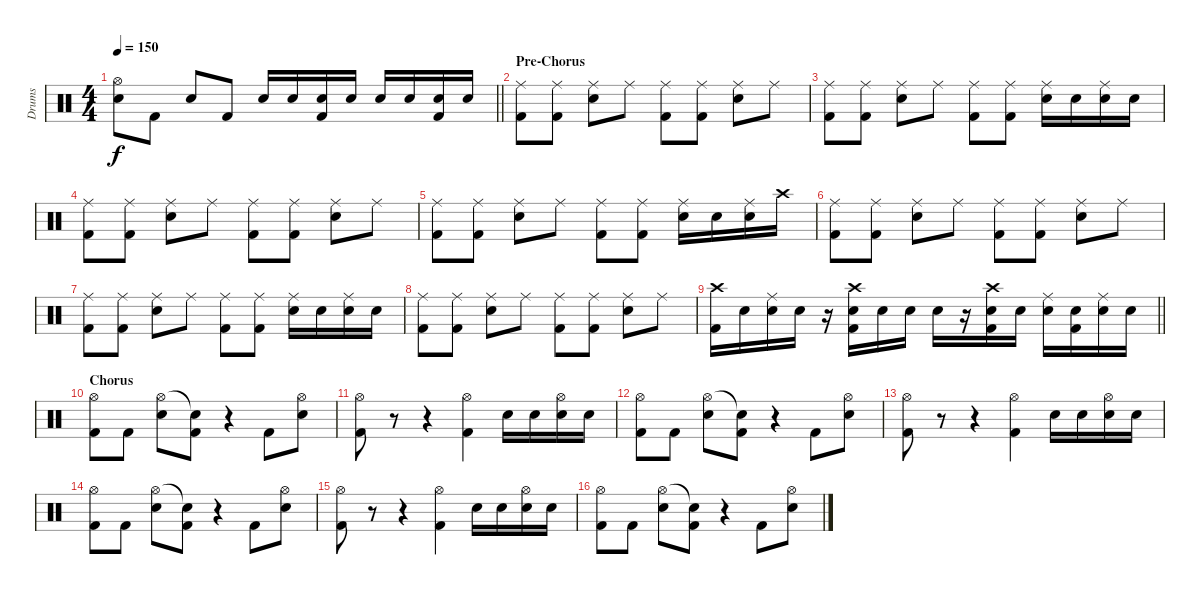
\track ("Drums" "Drums") {instrument percussion}
\staff {score}
\articulation defaults
\ts (4 4)
\tempo 150
\clef neutral
\barLineRight lightlight
\ks c
("Hi-Hat (open)" "Snare (hit) 2").8{dy f} "Kick (hit) 2".8 "Snare (hit) 2".8 "Kick (hit) 2".8 "Snare (hit) 2".16 "Snare (hit) 2".16 ("Snare (hit) 2" "Kick (hit) 2").16 "Snare (hit) 2".16 "Snare (hit) 2".16 "Snare (hit) 2".16 ("Snare (hit) 2" "Kick (hit) 2").16 "Snare (hit) 2".16 |
\section ("" "Pre-Chorus")
("Ride (middle)" "Kick (hit) 2").8 ("Ride (middle)" "Kick (hit) 2").8 ("Ride (middle)" "Snare (hit) 2").8 "Ride (middle)".8 ("Ride (middle)" "Kick (hit) 2").8 ("Ride (middle)" "Kick (hit) 2").8 ("Ride (middle)" "Snare (hit) 2").8 "Ride (middle)".8 |
("Ride (middle)" "Kick (hit) 2").8 ("Ride (middle)" "Kick (hit) 2").8 ("Ride (middle)" "Snare (hit) 2").8 "Ride (middle)".8 ("Ride (middle)" "Kick (hit) 2").8 ("Ride (middle)" "Kick (hit) 2").8 ("Ride (middle)" "Snare (hit) 2").16 "Snare (hit) 2".16 ("Ride (middle)" "Snare (hit) 2").16 "Snare (hit) 2".16 |
("Ride (middle)" "Kick (hit) 2").8 ("Ride (middle)" "Kick (hit) 2").8 ("Ride (middle)" "Snare (hit) 2").8 "Ride (middle)".8 ("Ride (middle)" "Kick (hit) 2").8 ("Ride (middle)" "Kick (hit) 2").8 ("Ride (middle)" "Snare (hit) 2").8 "Ride (middle)".8 |
("Ride (middle)" "Kick (hit) 2").8 ("Ride (middle)" "Kick (hit) 2").8 ("Ride (middle)" "Snare (hit) 2").8 "Ride (middle)".8 ("Ride (middle)" "Kick (hit) 2").8 ("Ride (middle)" "Kick (hit) 2").8 ("Ride (middle)" "Snare (hit) 2").16 "Snare (hit) 2".16 ("Ride (middle)" "Snare (hit) 2").16 "Crash high (hit)".16 |
("Ride (middle)" "Kick (hit) 2").8 ("Ride (middle)" "Kick (hit) 2").8 ("Ride (middle)" "Snare (hit) 2").8 "Ride (middle)".8 ("Ride (middle)" "Kick (hit) 2").8 ("Ride (middle)" "Kick (hit) 2").8 ("Ride (middle)" "Snare (hit) 2").8 "Ride (middle)".8 |
("Ride (middle)" "Kick (hit) 2").8 ("Ride (middle)" "Kick (hit) 2").8 ("Ride (middle)" "Snare (hit) 2").8 "Ride (middle)".8 ("Ride (middle)" "Kick (hit) 2").8 ("Ride (middle)" "Kick (hit) 2").8 ("Ride (middle)" "Snare (hit) 2").16 "Snare (hit) 2".16 ("Ride (middle)" "Snare (hit) 2").16 "Snare (hit) 2".16 |
("Ride (middle)" "Kick (hit) 2").8 ("Ride (middle)" "Kick (hit) 2").8 ("Ride (middle)" "Snare (hit) 2").8 "Ride (middle)".8 ("Ride (middle)" "Kick (hit) 2").8 ("Ride (middle)" "Kick (hit) 2").8 ("Ride (middle)" "Snare (hit) 2").8 "Ride (middle)".8 |
\barLineRight lightlight
("Crash high (hit)" "Kick (hit) 2").16 "Snare (hit) 2".16 ("Ride (middle)" "Snare (hit) 2").16 "Snare (hit) 2".16 r.16 ("Crash high (hit)" "Snare (hit) 2" "Kick (hit) 2").16 "Snare (hit) 2".16 "Snare (hit) 2".16 "Snare (hit) 2".16 r.16 ("Crash high (hit)" "Snare (hit) 2" "Kick (hit) 2").16 "Snare (hit) 2".16 ("Ride (middle)" "Snare (hit) 2").16 ("Snare (hit) 2" "Kick (hit) 2").16 ("Ride (middle)" "Snare (hit) 2").16 "Snare (hit) 2".16 |
\section ("" "Chorus")
("Hi-Hat (open)" "Kick (hit) 2").8 "Kick (hit) 2".8 ("Hi-Hat (open)" "Snare (hit) 2").8 ("Snare (hit)"{t} "Kick (hit) 2").8 r.4 "Kick (hit) 2".8 ("Hi-Hat (open)" "Snare (hit) 2").8 |
("Hi-Hat (open)" "Kick (hit) 2").8 r.8 r.4 ("Hi-Hat (open)" "Kick (hit) 2").4 "Snare (hit) 2".16 "Snare (hit) 2".16 ("Hi-Hat (open)" "Snare (hit) 2").16 "Snare (hit) 2".16 |
("Hi-Hat (open)" "Kick (hit) 2").8 "Kick (hit) 2".8 ("Hi-Hat (open)" "Snare (hit) 2").8 ("Snare (hit)"{t} "Kick (hit) 2").8 r.4 "Kick (hit) 2".8 ("Hi-Hat (open)" "Snare (hit) 2").8 |
("Hi-Hat (open)" "Kick (hit) 2").8 r.8 r.4 ("Hi-Hat (open)" "Kick (hit) 2").4 "Snare (hit) 2".16 "Snare (hit) 2".16 ("Hi-Hat (open)" "Snare (hit) 2").16 "Snare (hit) 2".16 |
("Hi-Hat (open)" "Kick (hit) 2").8 "Kick (hit) 2".8 ("Hi-Hat (open)" "Snare (hit) 2").8 ("Snare (hit)"{t} "Kick (hit) 2").8 r.4 "Kick (hit) 2".8 ("Hi-Hat (open)" "Snare (hit) 2").8 |
("Hi-Hat (open)" "Kick (hit) 2").8 r.8 r.4 ("Hi-Hat (open)" "Kick (hit) 2").4 "Snare (hit) 2".16 "Snare (hit) 2".16 ("Hi-Hat (open)" "Snare (hit) 2").16 "Snare (hit) 2".16 |
("Hi-Hat (open)" "Kick (hit) 2").8 "Kick (hit) 2".8 ("Hi-Hat (open)" "Snare (hit) 2").8 ("Snare (hit)"{t} "Kick (hit) 2").8 r.4 "Kick (hit) 2".8 ("Hi-Hat (open)" "Snare (hit) 2").8
